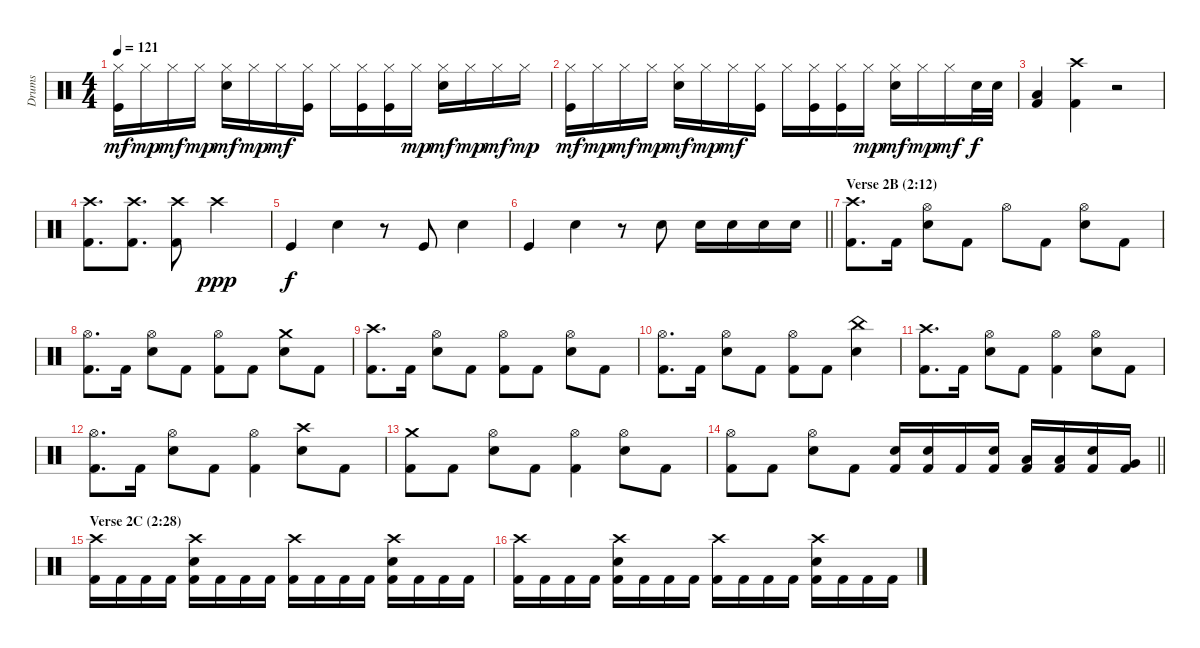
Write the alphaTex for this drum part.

\track ("Drums" "Drums") {instrument percussion}
\staff {score}
\articulation defaults
\ts (4 4)
\tempo 121
\clef neutral
\ks c
("Hi-Hat (closed)" "Kick (hit)").16{dy mf} "Hi-Hat (closed)".16{dy mp} "Hi-Hat (closed)".16{dy mf} "Hi-Hat (closed)".16{dy mp} ("Hi-Hat (closed)" "Electric Snare (hit)").16{dy mf} "Hi-Hat (closed)".16{dy mp} "Hi-Hat (closed)".16{dy mf} ("Hi-Hat (closed)" "Kick (hit)").16 "Hi-Hat (closed)".16 ("Hi-Hat (closed)" "Kick (hit)").16 ("Hi-Hat (closed)" "Kick (hit)").16 "Hi-Hat (closed)".16{dy mp} ("Hi-Hat (closed)" "Electric Snare (hit)").16{dy mf} "Hi-Hat (closed)".16{dy mp} "Hi-Hat (closed)".16{dy mf} "Hi-Hat (closed)".16{dy mp} |
("Hi-Hat (closed)" "Kick (hit)").16{dy mf} "Hi-Hat (closed)".16{dy mp} "Hi-Hat (closed)".16{dy mf} "Hi-Hat (closed)".16{dy mp} ("Hi-Hat (closed)" "Electric Snare (hit)").16{dy mf} "Hi-Hat (closed)".16{dy mp} "Hi-Hat (closed)".16{dy mf} ("Hi-Hat (closed)" "Kick (hit)").16 "Hi-Hat (closed)".16 ("Hi-Hat (closed)" "Kick (hit)").16 ("Hi-Hat (closed)" "Kick (hit)").16 "Hi-Hat (closed)".16{dy mp} ("Hi-Hat (closed)" "Electric Snare (hit)").16{dy mf} "Hi-Hat (closed)".16{dy mp} "Hi-Hat (closed)".16{dy mf} "Electric Snare (hit)".32{dy f volume 16} "Electric Snare (hit)".32 |
("Low Floor Tom (hit)" "Kick (hit) 2").4 ("Crash high (hit)" "Kick (hit) 2").4 r.2 |
("Crash high (hit)" "Kick (hit) 2").8{d} ("Crash high (hit)" "Kick (hit) 2").8{d} ("Crash high (hit)" "Kick (hit) 2").8 "Crash high (hit)".2{dy ppp} |
"Kick (hit)".4{dy f volume 8} "Hand Clap (hit)".4 r.8 "Kick (hit)".8 "Hand Clap (hit)".4 |
\barLineRight lightlight "Kick (hit)".4 "Hand Clap (hit)".4
r.8 "Electric Snare (hit)".8{volume 16} "Electric Snare (hit)".16 "Electric Snare (hit)".16 "Electric Snare (hit)".16 "Electric Snare (hit)".16 |
\section ("" "Verse 2B (2:12)")
("Crash high (hit)" "Kick (hit) 2").8{d} "Kick (hit) 2".16 ("Hi-Hat (open)" "Electric Snare (hit)").8 "Kick (hit) 2".8 "Hi-Hat (open)".8 "Kick (hit) 2".8 ("Hi-Hat (open)" "Electric Snare (hit)").8 "Kick (hit) 2".8 |
("Hi-Hat (open)" "Kick (hit) 2").8{d} "Kick (hit) 2".16 ("Hi-Hat (open)" "Electric Snare (hit)").8 "Kick (hit) 2".8 ("Hi-Hat (open)" "Kick (hit) 2").8 "Kick (hit) 2".8 ("Crash medium (hit)" "Electric Snare (hit)").8 "Kick (hit) 2".8 |
("Crash high (hit)" "Kick (hit) 2").8{d} "Kick (hit) 2".16 ("Hi-Hat (open)" "Electric Snare (hit)").8 "Kick (hit) 2".8 ("Hi-Hat (open)" "Kick (hit) 2").8 "Kick (hit) 2".8 ("Hi-Hat (open)" "Electric Snare (hit)").8 "Kick (hit) 2".8 |
("Hi-Hat (open)" "Kick (hit) 2").8{d} "Kick (hit) 2".16 ("Hi-Hat (open)" "Electric Snare (hit)").8 "Kick (hit) 2".8 ("Hi-Hat (open)" "Kick (hit) 2").8 "Kick (hit) 2".8 ("China (hit)" "Electric Snare (hit)").4 |
("Crash high (hit)" "Kick (hit) 2").8{d} "Kick (hit) 2".16 ("Hi-Hat (open)" "Electric Snare (hit)").8 "Kick (hit) 2".8 ("Hi-Hat (open)" "Kick (hit) 2").4 ("Hi-Hat (open)" "Electric Snare (hit)").8 "Kick (hit) 2".8 |
("Hi-Hat (open)" "Kick (hit) 2").8{d} "Kick (hit) 2".16 ("Hi-Hat (open)" "Electric Snare (hit)").8 "Kick (hit) 2".8 ("Hi-Hat (open)" "Kick (hit) 2").4 ("Crash high (hit)" "Electric Snare (hit)").8 "Kick (hit) 2".8 |
("Crash medium (hit)" "Kick (hit) 2").8 "Kick (hit) 2".8 ("Hi-Hat (open)" "Electric Snare (hit)").8 "Kick (hit) 2".8 ("Hi-Hat (open)" "Kick (hit) 2").4 ("Hi-Hat (open)" "Electric Snare (hit)").8 "Kick (hit) 2".8 |
\barLineRight lightlight
("Hi-Hat (open)" "Kick (hit) 2").8 "Kick (hit) 2".8 ("Hi-Hat (open)" "Electric Snare (hit)").8 "Kick (hit) 2".8 ("Electric Snare (hit)" "Kick (hit) 2").16 ("Electric Snare (hit)" "Kick (hit) 2").16 "Kick (hit) 2".16 ("Electric Snare (hit)" "Kick (hit) 2").16 ("Low Tom (hit)" "Kick (hit) 2").16 ("Low Tom (hit)" "Kick (hit) 2").16 ("Electric Snare (hit)" "Kick (hit) 2").16 ("Very Low Tom (hit)" "Kick (hit) 2").16 |
\section ("" "Verse 2C (2:28)")
("Crash high (hit)" "Kick (hit) 2").16 "Kick (hit) 2".16 "Kick (hit) 2".16 "Kick (hit) 2".16 ("Crash high (hit)" "Electric Snare (hit)" "Kick (hit) 2").16 "Kick (hit) 2".16 "Kick (hit) 2".16 "Kick (hit) 2".16 ("Crash high (hit)" "Kick (hit) 2").16 "Kick (hit) 2".16 "Kick (hit) 2".16 "Kick (hit) 2".16 ("Crash high (hit)" "Electric Snare (hit)" "Kick (hit) 2").16 "Kick (hit) 2".16 "Kick (hit) 2".16 "Kick (hit) 2".16 |
("Crash high (hit)" "Kick (hit) 2").16 "Kick (hit) 2".16 "Kick (hit) 2".16 "Kick (hit) 2".16 ("Crash high (hit)" "Electric Snare (hit)" "Kick (hit) 2").16 "Kick (hit) 2".16 "Kick (hit) 2".16 "Kick (hit) 2".16 ("Crash high (hit)" "Kick (hit) 2").16 "Kick (hit) 2".16 "Kick (hit) 2".16 "Kick (hit) 2".16 ("Crash high (hit)" "Electric Snare (hit)" "Kick (hit) 2").16 "Kick (hit) 2".16 "Kick (hit) 2".16 "Kick (hit) 2".16
